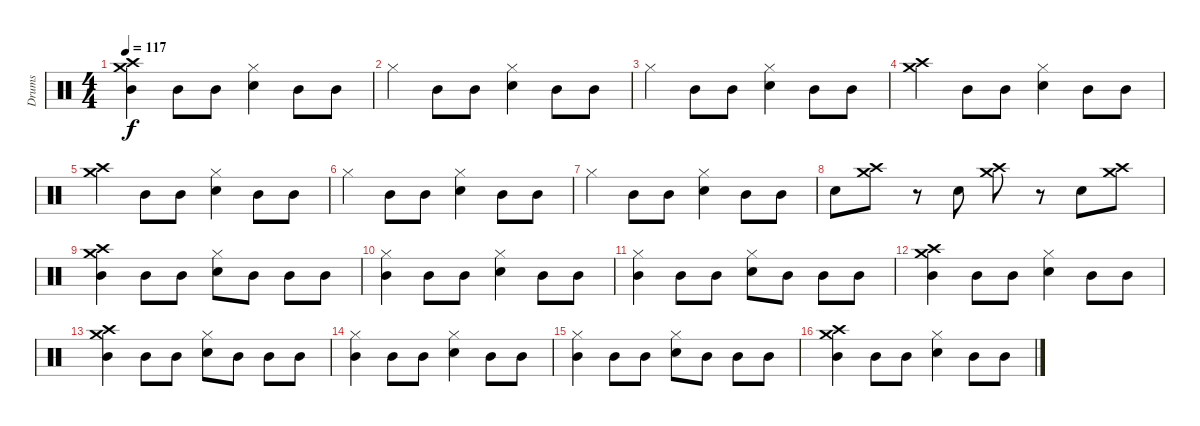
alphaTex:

\track ("Drums" "Drums") {instrument percussion}
\staff {score}
\articulation defaults
\ts (4 4)
\tempo 117
\clef neutral
\ks c
("Crash high (hit)" "Crash medium (hit)" "Mid Tom (hit)").4{dy f} "Mid Tom (hit)".8 "Mid Tom (hit)".8 ("Hi-Hat (closed)" "Electric Snare (hit)").4 "Mid Tom (hit)".8 "Mid Tom (hit)".8 |
"Hi-Hat (closed)".4 "Mid Tom (hit)".8 "Mid Tom (hit)".8 ("Hi-Hat (closed)" "Electric Snare (hit)").4 "Mid Tom (hit)".8 "Mid Tom (hit)".8 |
"Hi-Hat (closed)".4 "Mid Tom (hit)".8 "Mid Tom (hit)".8 ("Hi-Hat (closed)" "Electric Snare (hit)").4 "Mid Tom (hit)".8 "Mid Tom (hit)".8 |
("Crash high (hit)" "Crash medium (hit)").4 "Mid Tom (hit)".8 "Mid Tom (hit)".8 ("Hi-Hat (closed)" "Electric Snare (hit)").4 "Mid Tom (hit)".8 "Mid Tom (hit)".8 |
("Crash high (hit)" "Crash medium (hit)").4 "Mid Tom (hit)".8 "Mid Tom (hit)".8 ("Hi-Hat (closed)" "Electric Snare (hit)").4 "Mid Tom (hit)".8 "Mid Tom (hit)".8 |
"Hi-Hat (closed)".4 "Mid Tom (hit)".8 "Mid Tom (hit)".8 ("Hi-Hat (closed)" "Electric Snare (hit)").4 "Mid Tom (hit)".8 "Mid Tom (hit)".8 |
"Hi-Hat (closed)".4 "Mid Tom (hit)".8 "Mid Tom (hit)".8 ("Hi-Hat (closed)" "Electric Snare (hit)").4 "Mid Tom (hit)".8 "Mid Tom (hit)".8 |
"Electric Snare (hit)".8 ("Crash high (hit)" "Crash medium (hit)").8 r.8 "Electric Snare (hit)".8 ("Crash high (hit)" "Crash medium (hit)").8 r.8 "Electric Snare (hit)".8 ("Crash high (hit)" "Crash medium (hit)").8 |
("Crash high (hit)" "Crash medium (hit)" "Mid Tom (hit)").4 "Mid Tom (hit)".8 "Mid Tom (hit)".8 ("Hi-Hat (closed)" "Electric Snare (hit)").8 "Mid Tom (hit)".8 "Mid Tom (hit)".8 "Mid Tom (hit)".8 |
("Hi-Hat (closed)" "Mid Tom (hit)").4 "Mid Tom (hit)".8 "Mid Tom (hit)".8 ("Hi-Hat (closed)" "Electric Snare (hit)").4 "Mid Tom (hit)".8 "Mid Tom (hit)".8 |
("Hi-Hat (closed)" "Mid Tom (hit)").4 "Mid Tom (hit)".8 "Mid Tom (hit)".8 ("Hi-Hat (closed)" "Electric Snare (hit)").8 "Mid Tom (hit)".8 "Mid Tom (hit)".8 "Mid Tom (hit)".8 |
("Crash high (hit)" "Crash medium (hit)" "Mid Tom (hit)").4 "Mid Tom (hit)".8 "Mid Tom (hit)".8 ("Hi-Hat (closed)" "Electric Snare (hit)").4 "Mid Tom (hit)".8 "Mid Tom (hit)".8 |
("Crash high (hit)" "Crash medium (hit)" "Mid Tom (hit)").4 "Mid Tom (hit)".8 "Mid Tom (hit)".8 ("Hi-Hat (closed)" "Electric Snare (hit)").8 "Mid Tom (hit)".8 "Mid Tom (hit)".8 "Mid Tom (hit)".8 |
("Hi-Hat (closed)" "Mid Tom (hit)").4 "Mid Tom (hit)".8 "Mid Tom (hit)".8 ("Hi-Hat (closed)" "Electric Snare (hit)").4 "Mid Tom (hit)".8 "Mid Tom (hit)".8 |
("Hi-Hat (closed)" "Mid Tom (hit)").4 "Mid Tom (hit)".8 "Mid Tom (hit)".8 ("Hi-Hat (closed)" "Electric Snare (hit)").8 "Mid Tom (hit)".8 "Mid Tom (hit)".8 "Mid Tom (hit)".8 |
("Crash high (hit)" "Crash medium (hit)" "Mid Tom (hit)").4 "Mid Tom (hit)".8 "Mid Tom (hit)".8 ("Hi-Hat (closed)" "Electric Snare (hit)").4 "Mid Tom (hit)".8 "Mid Tom (hit)".8
